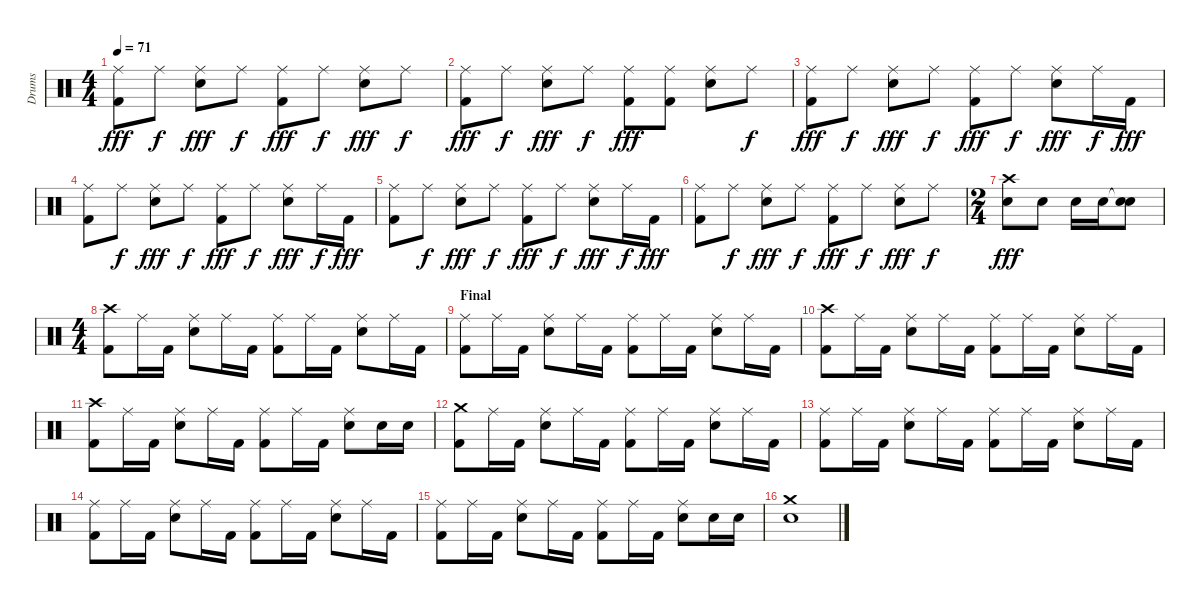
\track ("Drums" "Drums") {instrument percussion}
\staff {score}
\articulation defaults
\ts (4 4)
\tempo 71
\clef neutral
\ks c
("Ride (middle)" "Kick (hit) 2").8{dy fff} "Ride (middle)".8{dy f} ("Ride (middle)" "Electric Snare (hit)").8{dy fff} "Ride (middle)".8{dy f} ("Ride (middle)" "Kick (hit) 2").8{dy fff} "Ride (middle)".8{dy f} ("Ride (middle)" "Electric Snare (hit)").8{dy fff} "Ride (middle)".8{dy f} |
("Ride (middle)" "Kick (hit) 2").8{dy fff} "Ride (middle)".8{dy f} ("Ride (middle)" "Electric Snare (hit)").8{dy fff} "Ride (middle)".8{dy f} ("Ride (middle)" "Kick (hit) 2").8{dy fff} ("Ride (middle)" "Kick (hit) 2").8 ("Ride (middle)" "Electric Snare (hit)").8 "Ride (middle)".8{dy f} |
("Ride (middle)" "Kick (hit) 2").8{dy fff} "Ride (middle)".8{dy f} ("Ride (middle)" "Electric Snare (hit)").8{dy fff} "Ride (middle)".8{dy f} ("Ride (middle)" "Kick (hit) 2").8{dy fff} "Ride (middle)".8{dy f} ("Ride (middle)" "Electric Snare (hit)").8{dy fff} "Ride (middle)".16{dy f} "Kick (hit) 2".16{dy fff} |
("Ride (middle)" "Kick (hit) 2").8 "Ride (middle)".8{dy f} ("Ride (middle)" "Electric Snare (hit)").8{dy fff} "Ride (middle)".8{dy f} ("Ride (middle)" "Kick (hit) 2").8{dy fff} "Ride (middle)".8{dy f} ("Ride (middle)" "Electric Snare (hit)").8{dy fff} "Ride (middle)".16{dy f} "Kick (hit) 2".16{dy fff} |
("Ride (middle)" "Kick (hit) 2").8 "Ride (middle)".8{dy f} ("Ride (middle)" "Electric Snare (hit)").8{dy fff} "Ride (middle)".8{dy f} ("Ride (middle)" "Kick (hit) 2").8{dy fff} "Ride (middle)".8{dy f} ("Ride (middle)" "Electric Snare (hit)").8{dy fff} "Ride (middle)".16{dy f} "Kick (hit) 2".16{dy fff} |
("Ride (middle)" "Kick (hit) 2").8 "Ride (middle)".8{dy f} ("Ride (middle)" "Electric Snare (hit)").8{dy fff} "Ride (middle)".8{dy f} ("Ride (middle)" "Kick (hit) 2").8{dy fff} "Ride (middle)".8{dy f} ("Ride (middle)" "Electric Snare (hit)").8{dy fff} "Ride (middle)".8{dy f} |
\ts (2 4)
("Crash high (hit)" "Electric Snare (hit)").8{dy fff} "Electric Snare (hit)".8 "Electric Snare (hit)".16 "Electric Snare (hit)".16 ("Snare (hit)"{t} "Electric Snare (hit)").8 |
\ts (4 4)
("Crash high (hit)" "Kick (hit) 2").8 "Ride (middle)".16 "Kick (hit) 2".16 ("Ride (middle)" "Electric Snare (hit)").8 "Ride (middle)".16 "Kick (hit) 2".16 ("Ride (middle)" "Kick (hit) 2").8 "Ride (middle)".16 "Kick (hit) 2".16 ("Ride (middle)" "Electric Snare (hit)").8 "Ride (middle)".16 "Kick (hit) 2".16 |
\section ("" "Final")
("Ride (middle)" "Kick (hit) 2").8 "Ride (middle)".16 "Kick (hit) 2".16 ("Ride (middle)" "Electric Snare (hit)").8 "Ride (middle)".16 "Kick (hit) 2".16 ("Ride (middle)" "Kick (hit) 2").8 "Ride (middle)".16 "Kick (hit) 2".16 ("Ride (middle)" "Electric Snare (hit)").8 "Ride (middle)".16 "Kick (hit) 2".16 |
("Crash high (hit)" "Kick (hit) 2").8 "Ride (middle)".16 "Kick (hit) 2".16 ("Ride (middle)" "Electric Snare (hit)").8 "Ride (middle)".16 "Kick (hit) 2".16 ("Ride (middle)" "Kick (hit) 2").8 "Ride (middle)".16 "Kick (hit) 2".16 ("Ride (middle)" "Electric Snare (hit)").8 "Ride (middle)".16 "Kick (hit) 2".16 |
("Crash high (hit)" "Kick (hit) 2").8 "Ride (middle)".16 "Kick (hit) 2".16 ("Ride (middle)" "Electric Snare (hit)").8 "Ride (middle)".16 "Kick (hit) 2".16 ("Ride (middle)" "Kick (hit) 2").8 "Ride (middle)".16 "Kick (hit) 2".16 ("Ride (middle)" "Electric Snare (hit)").8 "Electric Snare (hit)".16 "Electric Snare (hit)".16 |
("Crash medium (hit)" "Kick (hit) 2").8 "Ride (middle)".16 "Kick (hit) 2".16 ("Ride (middle)" "Electric Snare (hit)").8 "Ride (middle)".16 "Kick (hit) 2".16 ("Ride (middle)" "Kick (hit) 2").8 "Ride (middle)".16 "Kick (hit) 2".16 ("Ride (middle)" "Electric Snare (hit)").8 "Ride (middle)".16 "Kick (hit) 2".16 |
("Ride (middle)" "Kick (hit) 2").8 "Ride (middle)".16 "Kick (hit) 2".16 ("Ride (middle)" "Electric Snare (hit)").8 "Ride (middle)".16 "Kick (hit) 2".16 ("Ride (middle)" "Kick (hit) 2").8 "Ride (middle)".16 "Kick (hit) 2".16 ("Ride (middle)" "Electric Snare (hit)").8 "Ride (middle)".16 "Kick (hit) 2".16 |
("Ride (middle)" "Kick (hit) 2").8 "Ride (middle)".16 "Kick (hit) 2".16 ("Ride (middle)" "Electric Snare (hit)").8 "Ride (middle)".16 "Kick (hit) 2".16 ("Ride (middle)" "Kick (hit) 2").8 "Ride (middle)".16 "Kick (hit) 2".16 ("Ride (middle)" "Electric Snare (hit)").8 "Ride (middle)".16 "Kick (hit) 2".16 |
("Ride (middle)" "Kick (hit) 2").8 "Ride (middle)".16 "Kick (hit) 2".16 ("Ride (middle)" "Electric Snare (hit)").8 "Ride (middle)".16 "Kick (hit) 2".16 ("Ride (middle)" "Kick (hit) 2").8 "Ride (middle)".16 "Kick (hit) 2".16 ("Ride (middle)" "Electric Snare (hit)").8 "Electric Snare (hit)".16 "Electric Snare (hit)".16 |
("Crash medium (hit)" "Electric Snare (hit)").1
